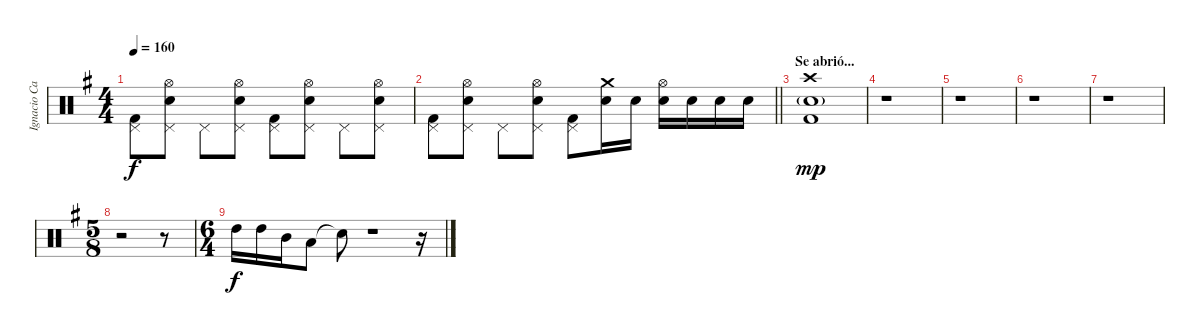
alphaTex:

\track ("Ignacio Cantera - Batería" "Ignacio Ca") {instrument percussion}
\staff {score}
\articulation defaults
\ts (4 4)
\tempo 160
\clef neutral
\ks eminor
("Pedal Hi-Hat (hit)" "Kick (hit) 2").8{dy f} ("Pedal Hi-Hat (hit)" "Snare (hit) 2" "Hi-Hat (open)").8 "Pedal Hi-Hat (hit)".8 ("Pedal Hi-Hat (hit)" "Snare (hit) 2" "Hi-Hat (open)").8 ("Pedal Hi-Hat (hit)" "Kick (hit) 2").8 ("Pedal Hi-Hat (hit)" "Snare (hit) 2" "Hi-Hat (open)").8 "Pedal Hi-Hat (hit)".8 ("Pedal Hi-Hat (hit)" "Snare (hit) 2" "Hi-Hat (open)").8 |
\barLineRight lightlight
("Pedal Hi-Hat (hit)" "Kick (hit) 2").8 ("Pedal Hi-Hat (hit)" "Snare (hit) 2" "Hi-Hat (open)").8 "Pedal Hi-Hat (hit)".8 ("Pedal Hi-Hat (hit)" "Snare (hit) 2" "Hi-Hat (open)").8 ("Pedal Hi-Hat (hit)" "Kick (hit) 2").8 ("Crash medium (hit)" "Snare (hit) 2").16 "Snare (hit) 2".16 ("Snare (hit) 2" "Hi-Hat (open)").16 "Snare (hit) 2".16 "Snare (hit) 2".16 "Snare (hit) 2".16 |
\section ("" "Se abrió...")
("Crash high (hit)" "Snare (hit) 2"{g} "Kick (hit) 2").1{dy mp} |
r.1 |
r.1 |
r.1 |
r.1 |
\ts (5 8)
r.2 r.8 |
\ts (6 4)
"High Tom (hit)".16{dy f} "High Tom (hit)".16 "Mid Tom (hit)".16 "Low Tom (hit)".8 "Snare (hit)"{t}.8 r.1 r.16
